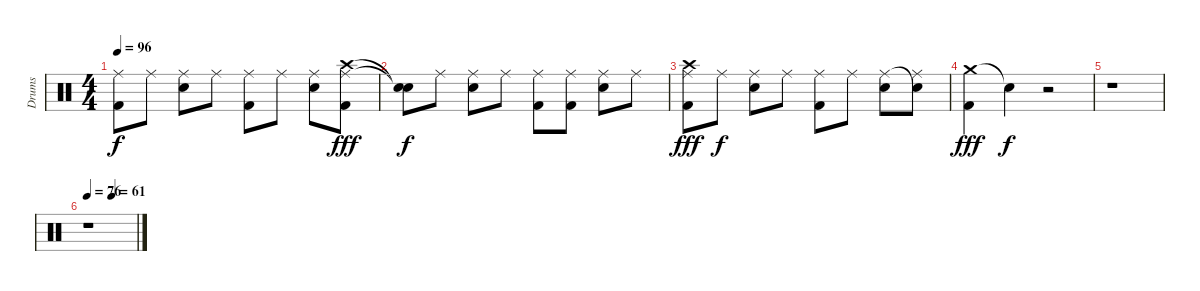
\track ("Drums" "Drums") {instrument percussion}
\staff {score}
\articulation defaults
\ts (4 4)
\tempo 96
\clef neutral
\ks c
("Ride (middle)" "Kick (hit) 2").8{dy f} "Ride (middle)".8 ("Ride (middle)" "Snare (hit) 2").8 "Ride (middle)".8 ("Ride (middle)" "Kick (hit) 2").8 "Ride (middle)".8 ("Ride (middle)" "Snare (hit) 2").8 ("Crash high (hit)" "Ride (middle)" "Kick (hit) 2").8{dy fff} |
("Snare (hit)"{t} "Snare (hit)"{t}).8{dy f} "Ride (middle)".8 ("Ride (middle)" "Snare (hit) 2").8 "Ride (middle)".8 ("Ride (middle)" "Kick (hit) 2").8 ("Ride (middle)" "Kick (hit) 2").8 ("Ride (middle)" "Snare (hit) 2").8 "Ride (middle)".8 |
("Crash high (hit)" "Ride (middle)" "Kick (hit) 2").8{dy fff} "Ride (middle)".8{dy f} ("Ride (middle)" "Snare (hit) 2").8 "Ride (middle)".8 ("Ride (middle)" "Kick (hit) 2").8 "Ride (middle)".8 ("Ride (middle)" "Snare (hit) 2").8 ("Snare (hit)"{t} "Ride (middle)").8 |
("Crash medium (hit)" "Kick (hit) 2").4{dy fff} "Snare (hit)"{t}.4{dy f} r.2 |
r.1 |
\tempo 76
\tempo (61 0.5)
r.1
